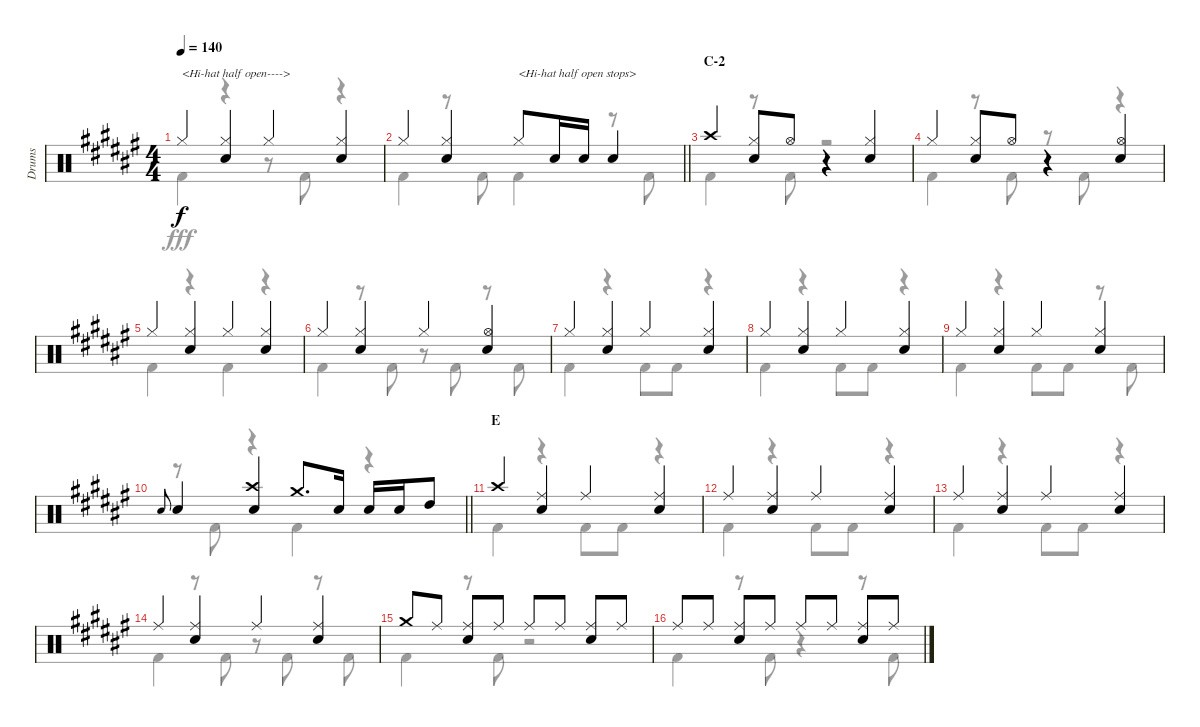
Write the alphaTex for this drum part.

\track ("Drums" "Drums") {instrument percussion}
\staff {score}
\articulation defaults
\voice
\ts (4 4)
\tempo 140
\clef neutral
\ks f# "Hi-Hat (closed)".4{txt "<Hi-hat half open---->" dy f}
("Hi-Hat (closed)" "Snare (hit) 2").4 "Hi-Hat (closed)".4 ("Hi-Hat (closed)" "Snare (hit) 2").4 |
\barLineRight lightlight "Hi-Hat (closed)".4
("Hi-Hat (closed)" "Snare (hit) 2").4 "Hi-Hat (closed)".8{txt "<Hi-hat half open stops>"} "Snare (hit) 2".16 "Snare (hit) 2".16 "Snare (hit) 2".4 |
\section ("" "C-2")
"Crash high (hit)".4 ("Hi-Hat (closed)" "Snare (hit) 2").8 "Hi-Hat (open)".8 r.4 ("Hi-Hat (closed)" "Snare (hit) 2").4 |
"Hi-Hat (closed)".4 ("Hi-Hat (closed)" "Snare (hit) 2").8 "Hi-Hat (open)".8 r.4 ("Hi-Hat (open)" "Snare (hit) 2").4 |
"Hi-Hat (closed)".4 ("Hi-Hat (closed)" "Snare (hit) 2").4 "Hi-Hat (closed)".4 ("Hi-Hat (closed)" "Snare (hit) 2").4 |
"Hi-Hat (closed)".4 ("Hi-Hat (closed)" "Snare (hit) 2").4 "Hi-Hat (closed)".4 ("Hi-Hat (open)" "Snare (hit) 2").4 |
"Hi-Hat (closed)".4 ("Hi-Hat (closed)" "Snare (hit) 2").4 "Hi-Hat (closed)".4 ("Hi-Hat (closed)" "Snare (hit) 2").4 |
"Hi-Hat (closed)".4 ("Hi-Hat (closed)" "Snare (hit) 2").4 "Hi-Hat (closed)".4 ("Hi-Hat (closed)" "Snare (hit) 2").4 |
"Hi-Hat (closed)".4 ("Hi-Hat (closed)" "Snare (hit) 2").4 "Hi-Hat (closed)".4 ("Hi-Hat (closed)" "Snare (hit) 2").4 |
\barLineRight lightlight "Snare (hit) 2".8{gr onbeat} "Snare (hit) 2".4
("Crash high (hit)" "Snare (hit) 2").4 "Crash medium (hit)".8{d} "Snare (hit) 2".16 "Snare (hit) 2".16 "Snare (hit) 2".16 "High Tom (hit)".8 |
\section ("" "E")
"Crash high (hit)".4 ("Ride (middle)" "Snare (hit) 2").4 "Ride (middle)".4 ("Ride (middle)" "Snare (hit) 2").4 |
"Ride (middle)".4 ("Ride (middle)" "Snare (hit) 2").4 "Ride (middle)".4 ("Ride (middle)" "Snare (hit) 2").4 |
"Ride (middle)".4 ("Ride (middle)" "Snare (hit) 2").4 "Ride (middle)".4 ("Ride (middle)" "Snare (hit) 2").4 |
"Ride (middle)".4 ("Ride (middle)" "Snare (hit) 2").4 "Ride (middle)".4 ("Ride (middle)" "Snare (hit) 2").4 |
"Crash medium (hit)".8 "Ride (middle)".8 ("Ride (middle)" "Snare (hit) 2").8 "Ride (middle)".8 "Ride (middle)".8 "Ride (middle)".8 ("Ride (middle)" "Snare (hit) 2").8 "Ride (middle)".8 |
"Ride (middle)".8 "Ride (middle)".8 ("Ride (middle)" "Snare (hit) 2").8 "Ride (middle)".8 "Ride (middle)".8 "Ride (middle)".8 ("Ride (middle)" "Snare (hit) 2").8 "Ride (middle)".8
\voice
\clef neutral
\ottava regular
\simile none
\ks f# "Kick (hit) 2".4{dy fff}
r.4 r.8 "Kick (hit) 2".8 r.4 |
\barLineRight lightlight "Kick (hit) 2".4
r.8 "Kick (hit) 2".8 "Kick (hit) 2".4 r.8 "Kick (hit) 2".8 |
"Kick (hit) 2".4 r.8 "Kick (hit) 2".8 r.2 |
"Kick (hit) 2".4 r.8 "Kick (hit) 2".8 r.8 "Kick (hit) 2".8 r.4 |
"Kick (hit) 2".4 r.4 "Kick (hit) 2".4 r.4 |
"Kick (hit) 2".4 r.8 "Kick (hit) 2".8 r.8 "Kick (hit) 2".8 r.8 "Kick (hit) 2".8 |
"Kick (hit) 2".4 r.4 "Kick (hit) 2".8 "Kick (hit) 2".8 r.4 |
"Kick (hit) 2".4 r.4 "Kick (hit) 2".8 "Kick (hit) 2".8 r.4 |
"Kick (hit) 2".4 r.4 "Kick (hit) 2".8 "Kick (hit) 2".8 r.8 "Kick (hit) 2".8 |
\barLineRight lightlight
r.8 "Kick (hit) 2".8 r.4 "Kick (hit) 2".4 r.4 |
"Kick (hit) 2".4 r.4 "Kick (hit) 2".8 "Kick (hit) 2".8 r.4 |
"Kick (hit) 2".4 r.4 "Kick (hit) 2".8 "Kick (hit) 2".8 r.4 |
"Kick (hit) 2".4 r.4 "Kick (hit) 2".8 "Kick (hit) 2".8 r.4 |
"Kick (hit) 2".4 r.8 "Kick (hit) 2".8 r.8 "Kick (hit) 2".8 r.8 "Kick (hit) 2".8 |
"Kick (hit) 2".4 r.8 "Kick (hit) 2".8 r.2 |
"Kick (hit) 2".4 r.8 "Kick (hit) 2".8 r.4 r.8 "Kick (hit) 2".8
